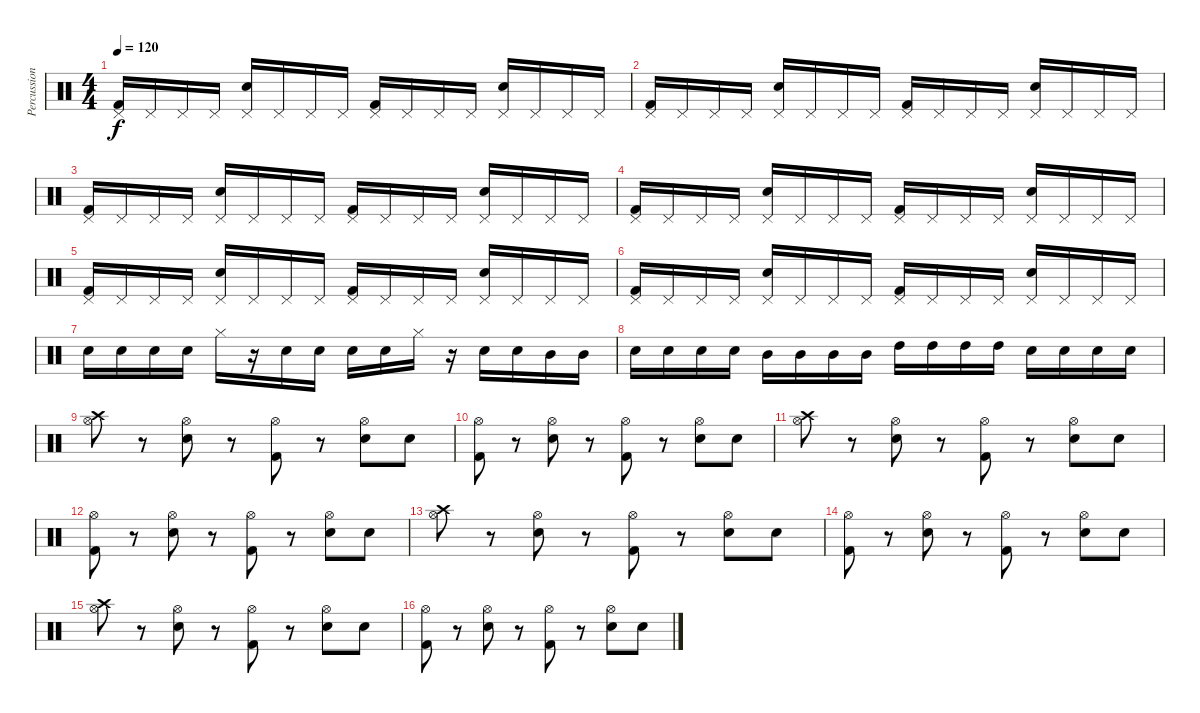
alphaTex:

\track ("Percussion" "Percussion") {instrument percussion}
\staff {score}
\articulation defaults
\ts (4 4)
\tempo 120
\clef neutral
\ks c
("Pedal Hi-Hat (hit)" "Kick (hit) 2").16{dy f} "Pedal Hi-Hat (hit)".16 "Pedal Hi-Hat (hit)".16 "Pedal Hi-Hat (hit)".16 ("Pedal Hi-Hat (hit)" "Electric Snare (hit)").16 "Pedal Hi-Hat (hit)".16 "Pedal Hi-Hat (hit)".16 "Pedal Hi-Hat (hit)".16 ("Pedal Hi-Hat (hit)" "Kick (hit) 2").16 "Pedal Hi-Hat (hit)".16 "Pedal Hi-Hat (hit)".16 "Pedal Hi-Hat (hit)".16 ("Pedal Hi-Hat (hit)" "Electric Snare (hit)").16 "Pedal Hi-Hat (hit)".16 "Pedal Hi-Hat (hit)".16 "Pedal Hi-Hat (hit)".16 |
("Pedal Hi-Hat (hit)" "Kick (hit) 2").16 "Pedal Hi-Hat (hit)".16 "Pedal Hi-Hat (hit)".16 "Pedal Hi-Hat (hit)".16 ("Pedal Hi-Hat (hit)" "Electric Snare (hit)").16 "Pedal Hi-Hat (hit)".16 "Pedal Hi-Hat (hit)".16 "Pedal Hi-Hat (hit)".16 ("Pedal Hi-Hat (hit)" "Kick (hit) 2").16 "Pedal Hi-Hat (hit)".16 "Pedal Hi-Hat (hit)".16 "Pedal Hi-Hat (hit)".16 ("Pedal Hi-Hat (hit)" "Electric Snare (hit)").16 "Pedal Hi-Hat (hit)".16 "Pedal Hi-Hat (hit)".16 "Pedal Hi-Hat (hit)".16 |
("Pedal Hi-Hat (hit)" "Kick (hit) 2").16 "Pedal Hi-Hat (hit)".16 "Pedal Hi-Hat (hit)".16 "Pedal Hi-Hat (hit)".16 ("Pedal Hi-Hat (hit)" "Electric Snare (hit)").16 "Pedal Hi-Hat (hit)".16 "Pedal Hi-Hat (hit)".16 "Pedal Hi-Hat (hit)".16 ("Pedal Hi-Hat (hit)" "Kick (hit) 2").16 "Pedal Hi-Hat (hit)".16 "Pedal Hi-Hat (hit)".16 "Pedal Hi-Hat (hit)".16 ("Pedal Hi-Hat (hit)" "Electric Snare (hit)").16 "Pedal Hi-Hat (hit)".16 "Pedal Hi-Hat (hit)".16 "Pedal Hi-Hat (hit)".16 |
("Pedal Hi-Hat (hit)" "Kick (hit) 2").16 "Pedal Hi-Hat (hit)".16 "Pedal Hi-Hat (hit)".16 "Pedal Hi-Hat (hit)".16 ("Pedal Hi-Hat (hit)" "Electric Snare (hit)").16 "Pedal Hi-Hat (hit)".16 "Pedal Hi-Hat (hit)".16 "Pedal Hi-Hat (hit)".16 ("Pedal Hi-Hat (hit)" "Kick (hit) 2").16 "Pedal Hi-Hat (hit)".16 "Pedal Hi-Hat (hit)".16 "Pedal Hi-Hat (hit)".16 ("Pedal Hi-Hat (hit)" "Electric Snare (hit)").16 "Pedal Hi-Hat (hit)".16 "Pedal Hi-Hat (hit)".16 "Pedal Hi-Hat (hit)".16 |
("Pedal Hi-Hat (hit)" "Kick (hit) 2").16 "Pedal Hi-Hat (hit)".16 "Pedal Hi-Hat (hit)".16 "Pedal Hi-Hat (hit)".16 ("Pedal Hi-Hat (hit)" "Electric Snare (hit)").16 "Pedal Hi-Hat (hit)".16 "Pedal Hi-Hat (hit)".16 "Pedal Hi-Hat (hit)".16 ("Pedal Hi-Hat (hit)" "Kick (hit) 2").16 "Pedal Hi-Hat (hit)".16 "Pedal Hi-Hat (hit)".16 "Pedal Hi-Hat (hit)".16 ("Pedal Hi-Hat (hit)" "Electric Snare (hit)").16 "Pedal Hi-Hat (hit)".16 "Pedal Hi-Hat (hit)".16 "Pedal Hi-Hat (hit)".16 |
("Pedal Hi-Hat (hit)" "Kick (hit) 2").16 "Pedal Hi-Hat (hit)".16 "Pedal Hi-Hat (hit)".16 "Pedal Hi-Hat (hit)".16 ("Pedal Hi-Hat (hit)" "Electric Snare (hit)").16 "Pedal Hi-Hat (hit)".16 "Pedal Hi-Hat (hit)".16 "Pedal Hi-Hat (hit)".16 ("Pedal Hi-Hat (hit)" "Kick (hit) 2").16 "Pedal Hi-Hat (hit)".16 "Pedal Hi-Hat (hit)".16 "Pedal Hi-Hat (hit)".16 ("Pedal Hi-Hat (hit)" "Electric Snare (hit)").16 "Pedal Hi-Hat (hit)".16 "Pedal Hi-Hat (hit)".16 "Pedal Hi-Hat (hit)".16 |
"Snare (hit) 2".16 "Snare (hit) 2".16 "Snare (hit) 2".16 "Snare (hit) 2".16 "Hi-Hat (closed)".16 r.16 "Snare (hit) 2".16 "Snare (hit) 2".16 "Snare (hit) 2".16 "Snare (hit) 2".16 "Hi-Hat (closed)".16 r.16 "Snare (hit) 2".16 "Snare (hit) 2".16 "Mid Tom (hit)".16 "Mid Tom (hit)".16 |
"Snare (hit) 2".16 "Snare (hit) 2".16 "Snare (hit) 2".16 "Snare (hit) 2".16 "Mid Tom (hit)".16 "Mid Tom (hit)".16 "Mid Tom (hit)".16 "Mid Tom (hit)".16 "High Tom (hit)".16 "High Tom (hit)".16 "High Tom (hit)".16 "High Tom (hit)".16 "Snare (hit) 2".16 "Snare (hit) 2".16 "Snare (hit) 2".16 "Snare (hit) 2".16 |
("Crash high (hit)" "Hi-Hat (open)").8 r.8 ("Electric Snare (hit)" "Hi-Hat (open)").8 r.8 ("Kick (hit) 2" "Hi-Hat (open)").8 r.8 ("Electric Snare (hit)" "Hi-Hat (open)").8 "Snare (hit)".8 |
("Kick (hit) 2" "Hi-Hat (open)").8 r.8 ("Electric Snare (hit)" "Hi-Hat (open)").8 r.8 ("Kick (hit) 2" "Hi-Hat (open)").8 r.8 ("Electric Snare (hit)" "Hi-Hat (open)").8 "Snare (hit)".8 |
("Crash high (hit)" "Hi-Hat (open)").8 r.8 ("Electric Snare (hit)" "Hi-Hat (open)").8 r.8 ("Kick (hit) 2" "Hi-Hat (open)").8 r.8 ("Electric Snare (hit)" "Hi-Hat (open)").8 "Snare (hit)".8 |
("Kick (hit) 2" "Hi-Hat (open)").8 r.8 ("Electric Snare (hit)" "Hi-Hat (open)").8 r.8 ("Kick (hit) 2" "Hi-Hat (open)").8 r.8 ("Electric Snare (hit)" "Hi-Hat (open)").8 "Snare (hit)".8 |
("Crash high (hit)" "Hi-Hat (open)").8 r.8 ("Electric Snare (hit)" "Hi-Hat (open)").8 r.8 ("Kick (hit) 2" "Hi-Hat (open)").8 r.8 ("Electric Snare (hit)" "Hi-Hat (open)").8 "Snare (hit)".8 |
("Kick (hit) 2" "Hi-Hat (open)").8 r.8 ("Electric Snare (hit)" "Hi-Hat (open)").8 r.8 ("Kick (hit) 2" "Hi-Hat (open)").8 r.8 ("Electric Snare (hit)" "Hi-Hat (open)").8 "Snare (hit)".8 |
("Crash high (hit)" "Hi-Hat (open)").8 r.8 ("Electric Snare (hit)" "Hi-Hat (open)").8 r.8 ("Kick (hit) 2" "Hi-Hat (open)").8 r.8 ("Electric Snare (hit)" "Hi-Hat (open)").8 "Snare (hit)".8 |
("Kick (hit) 2" "Hi-Hat (open)").8 r.8 ("Electric Snare (hit)" "Hi-Hat (open)").8 r.8 ("Kick (hit) 2" "Hi-Hat (open)").8 r.8 ("Electric Snare (hit)" "Hi-Hat (open)").8 "Snare (hit)".8
